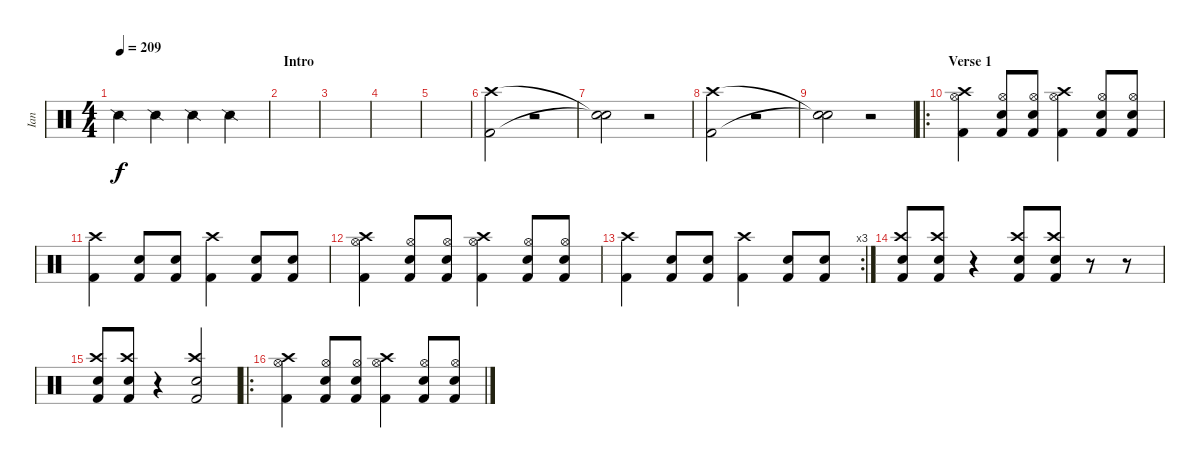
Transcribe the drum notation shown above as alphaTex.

\track ("Ian" "Ian") {instrument percussion}
\staff {score}
\articulation defaults
\ts (4 4)
\tempo 209
\clef neutral
\ks c "Snare (side stick) 2".4{dy f} "Snare (side stick) 2".4 "Snare (side stick) 2".4 "Snare (side stick) 2".4
|
\section ("" "Intro")
|
|
|
|
("Kick (hit) 2" "Crash high (hit)").2 r.2 |
("Snare (hit)"{t} "Snare (hit)"{t}).2 r.2 |
("Kick (hit) 2" "Crash high (hit)").2 r.2 |
("Snare (hit)"{t} "Snare (hit)"{t}).2 r.2 |
\ro
\section ("" "Verse 1")
("Hi-Hat (open)" "Crash high (hit)" "Kick (hit) 2").4 ("Electric Snare (hit)" "Hi-Hat (open)" "Kick (hit) 2").8 ("Electric Snare (hit)" "Hi-Hat (open)" "Kick (hit) 2").8 ("Hi-Hat (open)" "Crash high (hit)" "Kick (hit) 2").4 ("Electric Snare (hit)" "Hi-Hat (open)" "Kick (hit) 2").8 ("Electric Snare (hit)" "Hi-Hat (open)" "Kick (hit) 2").8 |
("Crash high (hit)" "Kick (hit) 2").4 ("Electric Snare (hit)" "Kick (hit) 2").8 ("Electric Snare (hit)" "Kick (hit) 2").8 ("Crash high (hit)" "Kick (hit) 2").4 ("Electric Snare (hit)" "Kick (hit) 2").8 ("Electric Snare (hit)" "Kick (hit) 2").8 |
("Hi-Hat (open)" "Crash high (hit)" "Kick (hit) 2").4 ("Electric Snare (hit)" "Hi-Hat (open)" "Kick (hit) 2").8 ("Electric Snare (hit)" "Hi-Hat (open)" "Kick (hit) 2").8 ("Hi-Hat (open)" "Crash high (hit)" "Kick (hit) 2").4 ("Electric Snare (hit)" "Hi-Hat (open)" "Kick (hit) 2").8 ("Electric Snare (hit)" "Hi-Hat (open)" "Kick (hit) 2").8 |
\rc 3
("Crash high (hit)" "Kick (hit) 2").4 ("Electric Snare (hit)" "Kick (hit) 2").8 ("Electric Snare (hit)" "Kick (hit) 2").8 ("Crash high (hit)" "Kick (hit) 2").4 ("Electric Snare (hit)" "Kick (hit) 2").8 ("Electric Snare (hit)" "Kick (hit) 2").8 |
("Crash high (hit)" "Electric Snare (hit)" "Kick (hit) 2").8 ("Crash high (hit)" "Electric Snare (hit)" "Kick (hit) 2").8 r.4 ("Crash high (hit)" "Electric Snare (hit)" "Kick (hit) 2").8 ("Crash high (hit)" "Electric Snare (hit)" "Kick (hit) 2").8 r.8 r.8 |
("Crash high (hit)" "Electric Snare (hit)" "Kick (hit) 2").8 ("Crash high (hit)" "Electric Snare (hit)" "Kick (hit) 2").8 r.4 ("Electric Snare (hit)" "Crash high (hit)" "Kick (hit) 2").2 |
\ro
("Hi-Hat (open)" "Crash high (hit)" "Kick (hit) 2").4 ("Electric Snare (hit)" "Hi-Hat (open)" "Kick (hit) 2").8 ("Electric Snare (hit)" "Hi-Hat (open)" "Kick (hit) 2").8 ("Hi-Hat (open)" "Crash high (hit)" "Kick (hit) 2").4 ("Electric Snare (hit)" "Hi-Hat (open)" "Kick (hit) 2").8 ("Electric Snare (hit)" "Hi-Hat (open)" "Kick (hit) 2").8
